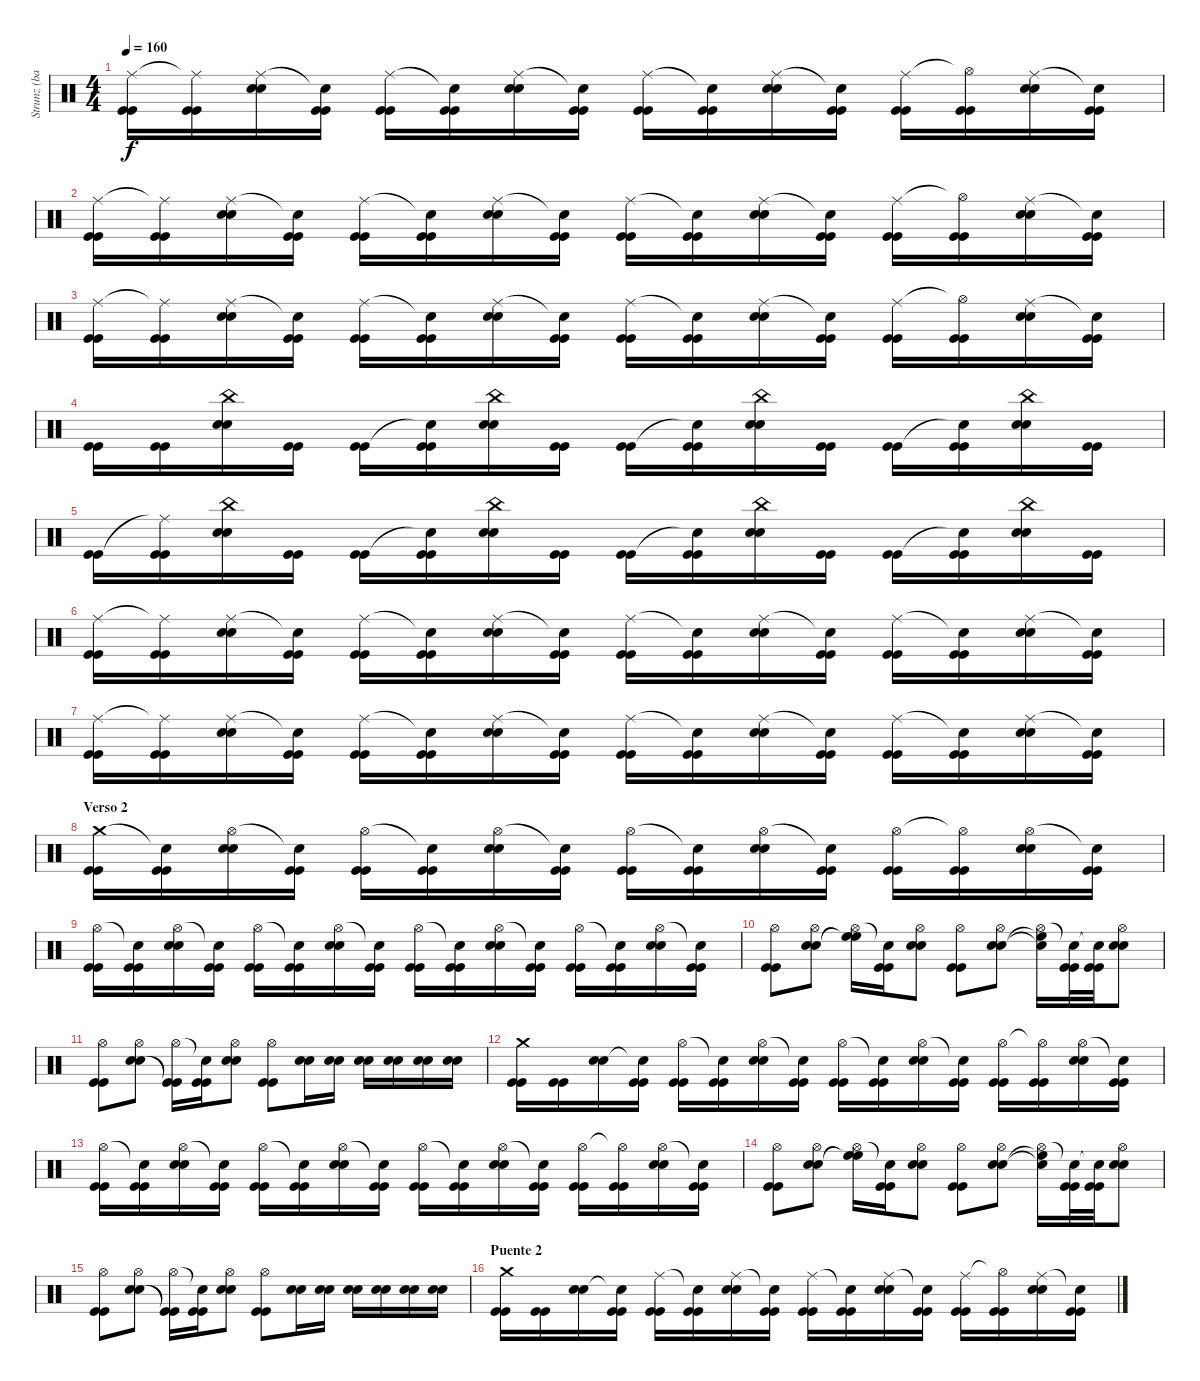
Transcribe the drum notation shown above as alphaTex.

\track ("Strunz (bateria)" "Strunz (ba") {instrument percussion}
\staff {score}
\articulation defaults
\ts (4 4)
\tempo 160
\clef neutral
\ks c
("Ride (middle)" "Kick (hit)" "Kick (hit)").16{dy f} ("Ride (middle)"{t} "Kick (hit)" "Kick (hit)").16 ("Ride (middle)" "Snare (hit) 2" "Snare (hit) 2").16 ("Snare (hit)"{t} "Kick (hit)" "Kick (hit)").16 ("Ride (middle)" "Kick (hit)" "Kick (hit)").16 ("Snare (hit)"{t} "Kick (hit)" "Kick (hit)").16 ("Ride (middle)" "Snare (hit) 2" "Snare (hit) 2").16 ("Snare (hit)"{t} "Kick (hit)" "Kick (hit)").16 ("Ride (middle)" "Kick (hit)" "Kick (hit)").16 ("Snare (hit)"{t} "Kick (hit)" "Kick (hit)").16 ("Ride (middle)" "Snare (hit) 2" "Snare (hit) 2").16 ("Snare (hit)"{t} "Kick (hit)" "Kick (hit)").16 ("Ride (middle)" "Kick (hit)" "Kick (hit)").16 ("Hi-Hat (open)"{t} "Kick (hit)" "Kick (hit)").16 ("Ride (middle)" "Snare (hit) 2" "Snare (hit) 2").16 ("Snare (hit)"{t} "Kick (hit)" "Kick (hit)").16 |
("Ride (middle)" "Kick (hit)" "Kick (hit)").16 ("Ride (middle)"{t} "Kick (hit)" "Kick (hit)").16 ("Ride (middle)" "Snare (hit) 2" "Snare (hit) 2").16 ("Snare (hit)"{t} "Kick (hit)" "Kick (hit)").16 ("Ride (middle)" "Kick (hit)" "Kick (hit)").16 ("Snare (hit)"{t} "Kick (hit)" "Kick (hit)").16 ("Ride (middle)" "Snare (hit) 2" "Snare (hit) 2").16 ("Snare (hit)"{t} "Kick (hit)" "Kick (hit)").16 ("Ride (middle)" "Kick (hit)" "Kick (hit)").16 ("Snare (hit)"{t} "Kick (hit)" "Kick (hit)").16 ("Ride (middle)" "Snare (hit) 2" "Snare (hit) 2").16 ("Snare (hit)"{t} "Kick (hit)" "Kick (hit)").16 ("Ride (middle)" "Kick (hit)" "Kick (hit)").16 ("Hi-Hat (open)"{t} "Kick (hit)" "Kick (hit)").16 ("Ride (middle)" "Snare (hit) 2" "Snare (hit) 2").16 ("Snare (hit)"{t} "Kick (hit)" "Kick (hit)").16 |
("Ride (middle)" "Kick (hit)" "Kick (hit)").16 ("Ride (middle)"{t} "Kick (hit)" "Kick (hit)").16 ("Ride (middle)" "Snare (hit) 2" "Snare (hit) 2").16 ("Snare (hit)"{t} "Kick (hit)" "Kick (hit)").16 ("Ride (middle)" "Kick (hit)" "Kick (hit)").16 ("Snare (hit)"{t} "Kick (hit)" "Kick (hit)").16 ("Ride (middle)" "Snare (hit) 2" "Snare (hit) 2").16 ("Snare (hit)"{t} "Kick (hit)" "Kick (hit)").16 ("Ride (middle)" "Kick (hit)" "Kick (hit)").16 ("Snare (hit)"{t} "Kick (hit)" "Kick (hit)").16 ("Ride (middle)" "Snare (hit) 2" "Snare (hit) 2").16 ("Snare (hit)"{t} "Kick (hit)" "Kick (hit)").16 ("Ride (middle)" "Kick (hit)" "Kick (hit)").16 ("Hi-Hat (open)"{t} "Kick (hit)" "Kick (hit)").16 ("Ride (middle)" "Snare (hit) 2" "Snare (hit) 2").16 ("Snare (hit)"{t} "Kick (hit)" "Kick (hit)").16 |
("Kick (hit)" "Kick (hit)").16 ("Kick (hit)" "Kick (hit)").16 ("China (hit)" "Snare (hit) 2" "Snare (hit) 2").16 ("Kick (hit)" "Kick (hit)").16 ("Kick (hit)" "Kick (hit)").16 ("Snare (hit)"{t} "Kick (hit)" "Kick (hit)").16 ("China (hit)" "Snare (hit) 2" "Snare (hit) 2").16 ("Kick (hit)" "Kick (hit)").16 ("Kick (hit)" "Kick (hit)").16 ("Snare (hit)"{t} "Kick (hit)" "Kick (hit)").16 ("China (hit)" "Snare (hit) 2" "Snare (hit) 2").16 ("Kick (hit)" "Kick (hit)").16 ("Kick (hit)" "Kick (hit)").16 ("Snare (hit)"{t} "Kick (hit)" "Kick (hit)").16 ("China (hit)" "Snare (hit) 2" "Snare (hit) 2").16 ("Kick (hit)" "Kick (hit)").16 |
("Kick (hit)" "Kick (hit)").16 ("Ride (middle)"{t} "Kick (hit)" "Kick (hit)").16 ("China (hit)" "Snare (hit) 2" "Snare (hit) 2").16 ("Kick (hit)" "Kick (hit)").16 ("Kick (hit)" "Kick (hit)").16 ("Snare (hit)"{t} "Kick (hit)" "Kick (hit)").16 ("China (hit)" "Snare (hit) 2" "Snare (hit) 2").16 ("Kick (hit)" "Kick (hit)").16 ("Kick (hit)" "Kick (hit)").16 ("Snare (hit)"{t} "Kick (hit)" "Kick (hit)").16 ("China (hit)" "Snare (hit) 2" "Snare (hit) 2").16 ("Kick (hit)" "Kick (hit)").16 ("Kick (hit)" "Kick (hit)").16 ("Snare (hit)"{t} "Kick (hit)" "Kick (hit)").16 ("China (hit)" "Snare (hit) 2" "Snare (hit) 2").16 ("Kick (hit)" "Kick (hit)").16 |
("Ride (middle)" "Kick (hit)" "Kick (hit)").16 ("Ride (middle)"{t} "Kick (hit)" "Kick (hit)").16 ("Ride (middle)" "Snare (hit) 2" "Snare (hit) 2").16 ("Snare (hit)"{t} "Kick (hit)" "Kick (hit)").16 ("Ride (middle)" "Kick (hit)" "Kick (hit)").16 ("Snare (hit)"{t} "Kick (hit)" "Kick (hit)").16 ("Ride (middle)" "Snare (hit) 2" "Snare (hit) 2").16 ("Snare (hit)"{t} "Kick (hit)" "Kick (hit)").16 ("Ride (middle)" "Kick (hit)" "Kick (hit)").16 ("Snare (hit)"{t} "Kick (hit)" "Kick (hit)").16 ("Ride (middle)" "Snare (hit) 2" "Snare (hit) 2").16 ("Snare (hit)"{t} "Kick (hit)" "Kick (hit)").16 ("Ride (middle)" "Kick (hit)" "Kick (hit)").16 ("Snare (hit)"{t} "Kick (hit)" "Kick (hit)").16 ("Ride (middle)" "Snare (hit) 2" "Snare (hit) 2").16 ("Snare (hit)"{t} "Kick (hit)" "Kick (hit)").16 |
("Ride (middle)" "Kick (hit)" "Kick (hit)").16 ("Ride (middle)"{t} "Kick (hit)" "Kick (hit)").16 ("Ride (middle)" "Snare (hit) 2" "Snare (hit) 2").16 ("Snare (hit)"{t} "Kick (hit)" "Kick (hit)").16 ("Ride (middle)" "Kick (hit)" "Kick (hit)").16 ("Snare (hit)"{t} "Kick (hit)" "Kick (hit)").16 ("Ride (middle)" "Snare (hit) 2" "Snare (hit) 2").16 ("Snare (hit)"{t} "Kick (hit)" "Kick (hit)").16 ("Ride (middle)" "Kick (hit)" "Kick (hit)").16 ("Snare (hit)"{t} "Kick (hit)" "Kick (hit)").16 ("Ride (middle)" "Snare (hit) 2" "Snare (hit) 2").16 ("Snare (hit)"{t} "Kick (hit)" "Kick (hit)").16 ("Ride (middle)" "Kick (hit)" "Kick (hit)").16 ("Snare (hit)"{t} "Kick (hit)" "Kick (hit)").16 ("Ride (middle)" "Snare (hit) 2" "Snare (hit) 2").16 ("Snare (hit)"{t} "Kick (hit)" "Kick (hit)").16 |
\section ("" "Verso 2")
("Crash medium (hit)" "Kick (hit)" "Kick (hit)").16 ("Snare (hit)"{t} "Kick (hit)" "Kick (hit)").16 ("Hi-Hat (open)" "Snare (hit) 2" "Snare (hit) 2").16 ("Snare (hit)"{t} "Kick (hit)" "Kick (hit)").16 ("Hi-Hat (open)" "Kick (hit)" "Kick (hit)").16 ("Snare (hit)"{t} "Kick (hit)" "Kick (hit)").16 ("Hi-Hat (open)" "Snare (hit) 2" "Snare (hit) 2").16 ("Snare (hit)"{t} "Kick (hit)" "Kick (hit)").16 ("Hi-Hat (open)" "Kick (hit)" "Kick (hit)").16 ("Snare (hit)"{t} "Kick (hit)" "Kick (hit)").16 ("Hi-Hat (open)" "Snare (hit) 2" "Snare (hit) 2").16 ("Snare (hit)"{t} "Kick (hit)" "Kick (hit)").16 ("Hi-Hat (open)" "Kick (hit)" "Kick (hit)").16 ("Hi-Hat (open)"{t} "Kick (hit)" "Kick (hit)").16 ("Hi-Hat (open)" "Snare (hit) 2" "Snare (hit) 2").16 ("Snare (hit)"{t} "Kick (hit)" "Kick (hit)").16 |
("Hi-Hat (open)" "Kick (hit)" "Kick (hit)").16 ("Snare (hit)"{t} "Kick (hit)" "Kick (hit)").16 ("Hi-Hat (open)" "Snare (hit) 2" "Snare (hit) 2").16 ("Snare (hit)"{t} "Kick (hit)" "Kick (hit)").16 ("Hi-Hat (open)" "Kick (hit)" "Kick (hit)").16 ("Snare (hit)"{t} "Kick (hit)" "Kick (hit)").16 ("Hi-Hat (open)" "Snare (hit) 2" "Snare (hit) 2").16 ("Snare (hit)"{t} "Kick (hit)" "Kick (hit)").16 ("Hi-Hat (open)" "Kick (hit)" "Kick (hit)").16 ("Snare (hit)"{t} "Kick (hit)" "Kick (hit)").16 ("Hi-Hat (open)" "Snare (hit) 2" "Snare (hit) 2").16 ("Snare (hit)"{t} "Kick (hit)" "Kick (hit)").16 ("Hi-Hat (open)" "Kick (hit)" "Kick (hit)").16 ("Snare (hit)"{t} "Kick (hit)" "Kick (hit)").16 ("Hi-Hat (open)" "Snare (hit) 2" "Snare (hit) 2").16 ("Snare (hit)"{t} "Kick (hit)" "Kick (hit)").16 |
("Hi-Hat (open)" "Kick (hit)" "Kick (hit)").8 ("Hi-Hat (open)" "Snare (hit) 2" "Snare (hit) 2").8 ("Hi-Hat (open)" "High Floor Tom (hit)"{t} "High Floor Tom (hit)"{t}).16 ("Snare (hit)"{t} "Kick (hit)" "Kick (hit)").16 ("Hi-Hat (open)" "Snare (hit) 2" "Snare (hit) 2").8 ("Hi-Hat (open)" "Kick (hit)" "Kick (hit)").8 ("Hi-Hat (open)" "Snare (hit) 2" "Snare (hit) 2").8 ("Hi-Hat (open)" "Snare (hit)"{t} "High Floor Tom (hit)"{t}).16 ("Snare (hit)"{t} "Kick (hit)" "Kick (hit)").32 ("Snare (hit)"{t} "Kick (hit)" "Kick (hit)").32 ("Hi-Hat (open)" "Snare (hit) 2" "Snare (hit) 2").8 |
("Hi-Hat (open)" "Kick (hit)" "Kick (hit)").8 ("Hi-Hat (open)" "Snare (hit) 2" "Snare (hit) 2").8 ("Hi-Hat (open)" "Kick (hit)"{t} "Kick (hit)"{t}).16 ("Snare (hit)"{t} "Kick (hit)" "Kick (hit)").16 ("Hi-Hat (open)" "Snare (hit) 2" "Snare (hit) 2").8 ("Hi-Hat (open)" "Kick (hit)" "Kick (hit)").8 ("Snare (hit) 2" "Snare (hit) 2").16 ("Snare (hit) 2" "Snare (hit) 2").16 ("Snare (hit) 2" "Snare (hit) 2").16 ("Snare (hit) 2" "Snare (hit) 2").16 ("Snare (hit) 2" "Snare (hit) 2").16 ("Snare (hit) 2" "Snare (hit) 2").16 |
("Crash medium (hit)" "Kick (hit)" "Kick (hit)").16 ("Kick (hit)" "Kick (hit)").16 ("Snare (hit) 2" "Snare (hit) 2").16 ("Snare (hit)"{t} "Kick (hit)" "Kick (hit)").16 ("Hi-Hat (open)" "Kick (hit)" "Kick (hit)").16 ("Snare (hit)"{t} "Kick (hit)" "Kick (hit)").16 ("Hi-Hat (open)" "Snare (hit) 2" "Snare (hit) 2").16 ("Snare (hit)"{t} "Kick (hit)" "Kick (hit)").16 ("Hi-Hat (open)" "Kick (hit)" "Kick (hit)").16 ("Snare (hit)"{t} "Kick (hit)" "Kick (hit)").16 ("Hi-Hat (open)" "Snare (hit) 2" "Snare (hit) 2").16 ("Snare (hit)"{t} "Kick (hit)" "Kick (hit)").16 ("Hi-Hat (open)" "Kick (hit)" "Kick (hit)").16 ("Hi-Hat (open)"{t} "Kick (hit)" "Kick (hit)").16 ("Hi-Hat (open)" "Snare (hit) 2" "Snare (hit) 2").16 ("Snare (hit)"{t} "Kick (hit)" "Kick (hit)").16 |
("Hi-Hat (open)" "Kick (hit)" "Kick (hit)").16 ("Snare (hit)"{t} "Kick (hit)" "Kick (hit)").16 ("Hi-Hat (open)" "Snare (hit) 2" "Snare (hit) 2").16 ("Snare (hit)"{t} "Kick (hit)" "Kick (hit)").16 ("Hi-Hat (open)" "Kick (hit)" "Kick (hit)").16 ("Snare (hit)"{t} "Kick (hit)" "Kick (hit)").16 ("Hi-Hat (open)" "Snare (hit) 2" "Snare (hit) 2").16 ("Snare (hit)"{t} "Kick (hit)" "Kick (hit)").16 ("Hi-Hat (open)" "Kick (hit)" "Kick (hit)").16 ("Snare (hit)"{t} "Kick (hit)" "Kick (hit)").16 ("Hi-Hat (open)" "Snare (hit) 2" "Snare (hit) 2").16 ("Snare (hit)"{t} "Kick (hit)" "Kick (hit)").16 ("Hi-Hat (open)" "Kick (hit)" "Kick (hit)").16 ("Hi-Hat (open)"{t} "Kick (hit)" "Kick (hit)").16 ("Hi-Hat (open)" "Snare (hit) 2" "Snare (hit) 2").16 ("Snare (hit)"{t} "Kick (hit)" "Kick (hit)").16 |
("Hi-Hat (open)" "Kick (hit)" "Kick (hit)").8 ("Hi-Hat (open)" "Snare (hit) 2" "Snare (hit) 2").8 ("Hi-Hat (open)" "High Floor Tom (hit)"{t} "High Floor Tom (hit)"{t}).16 ("Snare (hit)"{t} "Kick (hit)" "Kick (hit)").16 ("Hi-Hat (open)" "Snare (hit) 2" "Snare (hit) 2").8 ("Hi-Hat (open)" "Kick (hit)" "Kick (hit)").8 ("Hi-Hat (open)" "Snare (hit) 2" "Snare (hit) 2").8 ("Hi-Hat (open)" "Snare (hit)"{t} "High Floor Tom (hit)"{t}).16 ("Snare (hit)"{t} "Kick (hit)" "Kick (hit)").32 ("Snare (hit)"{t} "Kick (hit)" "Kick (hit)").32 ("Hi-Hat (open)" "Snare (hit) 2" "Snare (hit) 2").8 |
("Hi-Hat (open)" "Kick (hit)" "Kick (hit)").8 ("Hi-Hat (open)" "Snare (hit) 2" "Snare (hit) 2").8 ("Hi-Hat (open)" "Kick (hit)"{t} "Kick (hit)"{t}).16 ("Snare (hit)"{t} "Kick (hit)" "Kick (hit)").16 ("Hi-Hat (open)" "Snare (hit) 2" "Snare (hit) 2").8 ("Hi-Hat (open)" "Kick (hit)" "Kick (hit)").8 ("Snare (hit) 2" "Snare (hit) 2").16 ("Snare (hit) 2" "Snare (hit) 2").16 ("Snare (hit) 2" "Snare (hit) 2").16 ("Snare (hit) 2" "Snare (hit) 2").16 ("Snare (hit) 2" "Snare (hit) 2").16 ("Snare (hit) 2" "Snare (hit) 2").16 |
\section ("" "Puente 2")
("Crash medium (hit)" "Kick (hit)" "Kick (hit)").16 ("Kick (hit)" "Kick (hit)").16 ("Snare (hit) 2" "Snare (hit) 2").16 ("Snare (hit)"{t} "Kick (hit)" "Kick (hit)").16 ("Ride (middle)" "Kick (hit)" "Kick (hit)").16 ("Snare (hit)"{t} "Kick (hit)" "Kick (hit)").16 ("Ride (middle)" "Snare (hit) 2" "Snare (hit) 2").16 ("Snare (hit)"{t} "Kick (hit)" "Kick (hit)").16 ("Ride (middle)" "Kick (hit)" "Kick (hit)").16 ("Snare (hit)"{t} "Kick (hit)" "Kick (hit)").16 ("Ride (middle)" "Snare (hit) 2" "Snare (hit) 2").16 ("Snare (hit)"{t} "Kick (hit)" "Kick (hit)").16 ("Ride (middle)" "Kick (hit)" "Kick (hit)").16 ("Hi-Hat (open)"{t} "Kick (hit)" "Kick (hit)").16 ("Ride (middle)" "Snare (hit) 2" "Snare (hit) 2").16 ("Snare (hit)"{t} "Kick (hit)" "Kick (hit)").16
